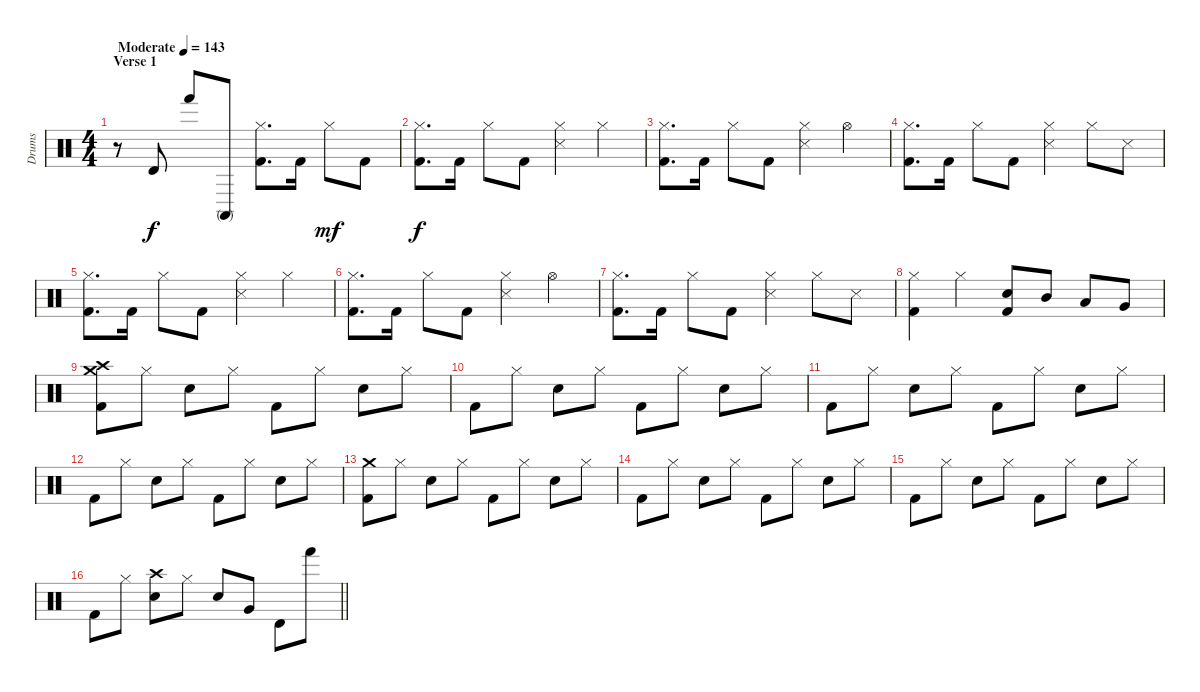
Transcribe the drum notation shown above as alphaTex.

\track ("Drums" "Drums") {instrument percussion}
\staff {score}
\articulation defaults
\ts (4 4)
\section ("" "Verse 1")
\tempo (143 "Moderate")
\clef neutral
\ks c
r.8{dy f} "Timbale high (hit)".8 "Hand (hit)".8 "Conga high (mute)".8 ("Hi-Hat (closed)" "Kick (hit) 2").8{d} "Kick (hit) 2".16 "Hi-Hat (closed)".8{dy mf} "Kick (hit) 2".8 |
("Hi-Hat (closed)" "Kick (hit) 2").8{d dy f} "Kick (hit) 2".16 "Hi-Hat (closed)".8 "Kick (hit) 2".8 ("Hi-Hat (closed)" "Snare (side stick) 3").4 "Hi-Hat (closed)".4 |
("Hi-Hat (closed)" "Kick (hit) 2").8{d} "Kick (hit) 2".16 "Hi-Hat (closed)".8 "Kick (hit) 2".8 ("Hi-Hat (closed)" "Snare (side stick) 3").4 "Hi-Hat (open)".4 |
("Hi-Hat (closed)" "Kick (hit) 2").8{d} "Kick (hit) 2".16 "Hi-Hat (closed)".8 "Kick (hit) 2".8 ("Hi-Hat (closed)" "Snare (side stick) 3").4 "Hi-Hat (closed)".8 "Snare (side stick) 3".8 |
("Hi-Hat (closed)" "Kick (hit) 2").8{d} "Kick (hit) 2".16 "Hi-Hat (closed)".8 "Kick (hit) 2".8 ("Hi-Hat (closed)" "Snare (side stick) 3").4 "Hi-Hat (closed)".4 |
("Hi-Hat (closed)" "Kick (hit) 2").8{d} "Kick (hit) 2".16 "Hi-Hat (closed)".8 "Kick (hit) 2".8 ("Hi-Hat (closed)" "Snare (side stick) 3").4 "Hi-Hat (open)".4 |
("Hi-Hat (closed)" "Kick (hit) 2").8{d} "Kick (hit) 2".16 "Hi-Hat (closed)".8 "Kick (hit) 2".8 ("Hi-Hat (closed)" "Snare (side stick) 3").4 "Hi-Hat (closed)".8 "Snare (side stick) 3".8 |
("Hi-Hat (closed)" "Kick (hit) 2").4 "Hi-Hat (closed)".4 ("Snare (hit) 2" "Kick (hit) 2").8 "Mid Tom (hit)".8 "Low Tom (hit)".8 "Very Low Tom (hit)".8 |
("Crash medium (hit)" "Crash high (hit)" "Kick (hit) 2").8 "Hi-Hat (closed)".8 "Snare (hit) 2".8 "Hi-Hat (closed)".8 "Kick (hit) 2".8 "Hi-Hat (closed)".8 "Snare (hit) 2".8 "Hi-Hat (closed)".8 |
"Kick (hit) 2".8 "Hi-Hat (closed)".8 "Snare (hit) 2".8 "Hi-Hat (closed)".8 "Kick (hit) 2".8 "Hi-Hat (closed)".8 "Snare (hit) 2".8 "Hi-Hat (closed)".8 |
"Kick (hit) 2".8 "Hi-Hat (closed)".8 "Snare (hit) 2".8 "Hi-Hat (closed)".8 "Kick (hit) 2".8 "Hi-Hat (closed)".8 "Snare (hit) 2".8 "Hi-Hat (closed)".8 |
"Kick (hit) 2".8 "Hi-Hat (closed)".8 "Snare (hit) 2".8 "Hi-Hat (closed)".8 "Kick (hit) 2".8 "Hi-Hat (closed)".8 "Snare (hit) 2".8 "Hi-Hat (closed)".8 |
("Crash medium (hit)" "Kick (hit) 2").8 "Hi-Hat (closed)".8 "Snare (hit) 2".8 "Hi-Hat (closed)".8 "Kick (hit) 2".8 "Hi-Hat (closed)".8 "Snare (hit) 2".8 "Hi-Hat (closed)".8 |
"Kick (hit) 2".8 "Hi-Hat (closed)".8 "Snare (hit) 2".8 "Hi-Hat (closed)".8 "Kick (hit) 2".8 "Hi-Hat (closed)".8 "Snare (hit) 2".8 "Hi-Hat (closed)".8 |
"Kick (hit) 2".8 "Hi-Hat (closed)".8 "Snare (hit) 2".8 "Hi-Hat (closed)".8 "Kick (hit) 2".8 "Hi-Hat (closed)".8 "Snare (hit) 2".8 "Hi-Hat (closed)".8 |
\barLineRight lightlight "Kick (hit) 2".8 "Hi-Hat (closed)".8
("Crash high (hit)" "Snare (hit) 2").8 "Hi-Hat (closed)".8 "Snare (hit) 2".8 "Very Low Tom (hit)".8 "Timbale high (hit)".8 "Hand (hit)".8
